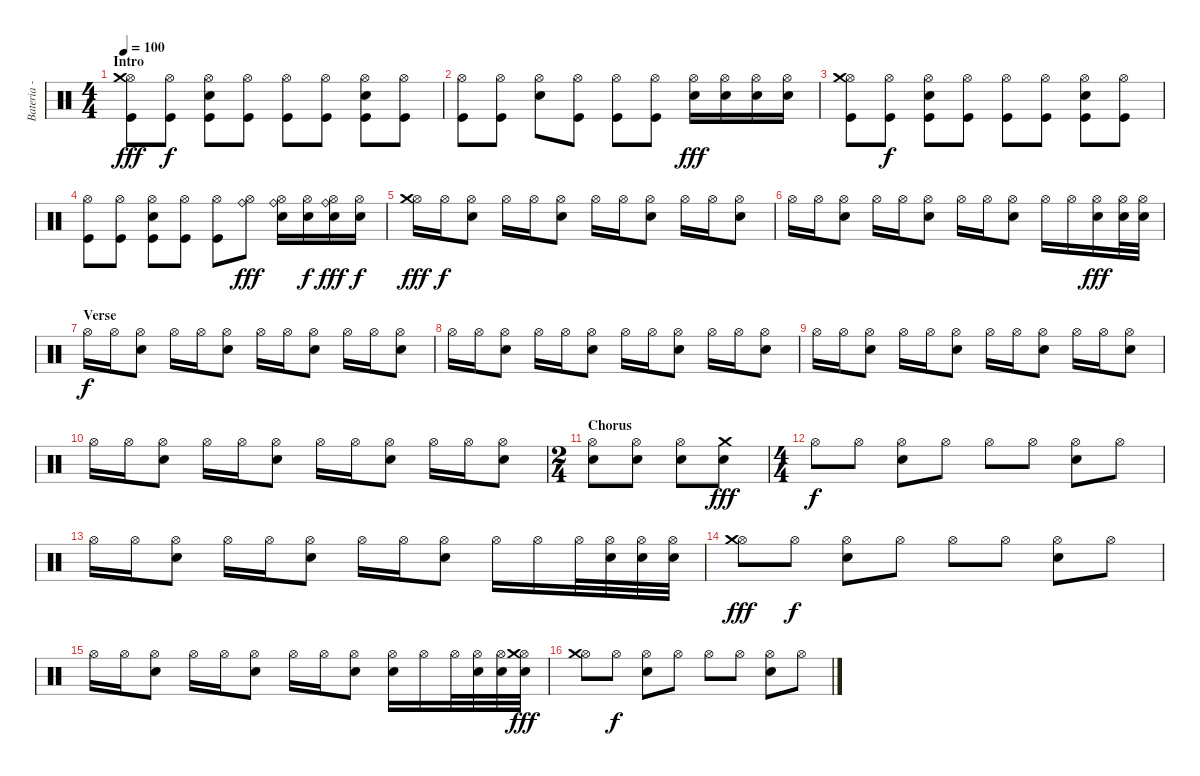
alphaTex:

\track ("Bateria - Larzon" "Bateria - ") {instrument percussion}
\staff {score}
\articulation defaults
\ts (4 4)
\section ("" "Intro")
\tempo 100
\clef neutral
\ks c
("Hi-Hat (open)" "Kick (hit)" "Crash medium (hit)").8{dy fff} ("Hi-Hat (open)" "Kick (hit)").8{dy f} ("Hi-Hat (open)" "Kick (hit)" "Snare (hit) 2").8 ("Hi-Hat (open)" "Kick (hit)").8 ("Hi-Hat (open)" "Kick (hit)").8 ("Hi-Hat (open)" "Kick (hit)").8 ("Hi-Hat (open)" "Kick (hit)" "Snare (hit) 2").8 ("Hi-Hat (open)" "Kick (hit)").8 |
("Hi-Hat (open)" "Kick (hit)").8 ("Hi-Hat (open)" "Kick (hit)").8 ("Hi-Hat (open)" "Snare (hit) 2").8 ("Hi-Hat (open)" "Kick (hit)").8 ("Hi-Hat (open)" "Kick (hit)").8 ("Hi-Hat (open)" "Kick (hit)").8 ("Hi-Hat (open)" "Snare (hit) 2").16{dy fff} ("Hi-Hat (open)" "Snare (hit) 2").16 ("Hi-Hat (open)" "Snare (hit) 2").16 ("Hi-Hat (open)" "Snare (hit) 2").16 |
("Hi-Hat (open)" "Kick (hit)" "Crash medium (hit)").8 ("Hi-Hat (open)" "Kick (hit)").8{dy f} ("Hi-Hat (open)" "Kick (hit)" "Snare (hit) 2").8 ("Hi-Hat (open)" "Kick (hit)").8 ("Hi-Hat (open)" "Kick (hit)").8 ("Hi-Hat (open)" "Kick (hit)").8 ("Hi-Hat (open)" "Kick (hit)" "Snare (hit) 2").8 ("Hi-Hat (open)" "Kick (hit)").8 |
("Hi-Hat (open)" "Kick (hit)").8 ("Hi-Hat (open)" "Kick (hit)").8 ("Hi-Hat (open)" "Kick (hit)" "Snare (hit) 2").8 ("Hi-Hat (open)" "Kick (hit)").8 ("Hi-Hat (open)" "Kick (hit)").8 ("Hi-Hat (open)" "Ride (bell)").8{dy fff} ("Hi-Hat (open)" "Ride (bell)" "Snare (hit) 2").16 ("Hi-Hat (open)" "Snare (hit) 2").16{dy f} ("Hi-Hat (open)" "Ride (bell)" "Snare (hit) 2").16{dy fff} ("Hi-Hat (open)" "Snare (hit) 2").16{dy f} |
("Hi-Hat (open)" "Crash medium (hit)").16{dy fff} "Hi-Hat (open)".16{dy f} ("Hi-Hat (open)" "Snare (hit) 2").8 "Hi-Hat (open)".16 "Hi-Hat (open)".16 ("Hi-Hat (open)" "Snare (hit) 2").8 "Hi-Hat (open)".16 "Hi-Hat (open)".16 ("Hi-Hat (open)" "Snare (hit) 2").8 "Hi-Hat (open)".16 "Hi-Hat (open)".16 ("Hi-Hat (open)" "Snare (hit) 2").8 |
"Hi-Hat (open)".16 "Hi-Hat (open)".16 ("Hi-Hat (open)" "Snare (hit) 2").8 "Hi-Hat (open)".16 "Hi-Hat (open)".16 ("Hi-Hat (open)" "Snare (hit) 2").8 "Hi-Hat (open)".16 "Hi-Hat (open)".16 ("Hi-Hat (open)" "Snare (hit) 2").8 "Hi-Hat (open)".16 "Hi-Hat (open)".16 ("Hi-Hat (open)" "Snare (hit) 2").16{dy fff} ("Hi-Hat (open)" "Snare (hit) 2").32 ("Hi-Hat (open)" "Snare (hit) 2").32 |
\section ("" "Verse")
"Hi-Hat (open)".16{dy f} "Hi-Hat (open)".16 ("Hi-Hat (open)" "Snare (hit) 2").8 "Hi-Hat (open)".16 "Hi-Hat (open)".16 ("Hi-Hat (open)" "Snare (hit) 2").8 "Hi-Hat (open)".16 "Hi-Hat (open)".16 ("Hi-Hat (open)" "Snare (hit) 2").8 "Hi-Hat (open)".16 "Hi-Hat (open)".16 ("Hi-Hat (open)" "Snare (hit) 2").8 |
"Hi-Hat (open)".16 "Hi-Hat (open)".16 ("Hi-Hat (open)" "Snare (hit) 2").8 "Hi-Hat (open)".16 "Hi-Hat (open)".16 ("Hi-Hat (open)" "Snare (hit) 2").8 "Hi-Hat (open)".16 "Hi-Hat (open)".16 ("Hi-Hat (open)" "Snare (hit) 2").8 "Hi-Hat (open)".16 "Hi-Hat (open)".16 ("Hi-Hat (open)" "Snare (hit) 2").8 |
"Hi-Hat (open)".16 "Hi-Hat (open)".16 ("Hi-Hat (open)" "Snare (hit) 2").8 "Hi-Hat (open)".16 "Hi-Hat (open)".16 ("Hi-Hat (open)" "Snare (hit) 2").8 "Hi-Hat (open)".16 "Hi-Hat (open)".16 ("Hi-Hat (open)" "Snare (hit) 2").8 "Hi-Hat (open)".16 "Hi-Hat (open)".16 ("Hi-Hat (open)" "Snare (hit) 2").8 |
"Hi-Hat (open)".16 "Hi-Hat (open)".16 ("Hi-Hat (open)" "Snare (hit) 2").8 "Hi-Hat (open)".16 "Hi-Hat (open)".16 ("Hi-Hat (open)" "Snare (hit) 2").8 "Hi-Hat (open)".16 "Hi-Hat (open)".16 ("Hi-Hat (open)" "Snare (hit) 2").8 "Hi-Hat (open)".16 "Hi-Hat (open)".16 ("Hi-Hat (open)" "Snare (hit) 2").8 |
\ts (2 4)
\section ("" "Chorus")
("Snare (hit) 2" "Hi-Hat (open)").8 ("Snare (hit) 2" "Hi-Hat (open)").8 ("Snare (hit) 2" "Hi-Hat (open)").8 ("Snare (hit) 2" "Crash medium (hit)").8{dy fff} |
\ts (4 4)
"Hi-Hat (open)".8{dy f} "Hi-Hat (open)".8 ("Hi-Hat (open)" "Snare (hit) 2").8 "Hi-Hat (open)".8 "Hi-Hat (open)".8 "Hi-Hat (open)".8 ("Hi-Hat (open)" "Snare (hit) 2").8 "Hi-Hat (open)".8 |
"Hi-Hat (open)".16 "Hi-Hat (open)".16 ("Hi-Hat (open)" "Snare (hit) 2").8 "Hi-Hat (open)".16 "Hi-Hat (open)".16 ("Hi-Hat (open)" "Snare (hit) 2").8 "Hi-Hat (open)".16 "Hi-Hat (open)".16 ("Hi-Hat (open)" "Snare (hit) 2").8 "Hi-Hat (open)".16 "Hi-Hat (open)".16 "Hi-Hat (open)".32 ("Hi-Hat (open)" "Snare (hit) 2").32 ("Hi-Hat (open)" "Snare (hit) 2").32 ("Hi-Hat (open)" "Snare (hit) 2").32 |
("Hi-Hat (open)" "Crash medium (hit)").8{dy fff} "Hi-Hat (open)".8{dy f} ("Hi-Hat (open)" "Snare (hit) 2").8 "Hi-Hat (open)".8 "Hi-Hat (open)".8 "Hi-Hat (open)".8 ("Hi-Hat (open)" "Snare (hit) 2").8 "Hi-Hat (open)".8 |
"Hi-Hat (open)".16 "Hi-Hat (open)".16 ("Hi-Hat (open)" "Snare (hit) 2").8 "Hi-Hat (open)".16 "Hi-Hat (open)".16 ("Hi-Hat (open)" "Snare (hit) 2").8 "Hi-Hat (open)".16 "Hi-Hat (open)".16 ("Hi-Hat (open)" "Snare (hit) 2").8 ("Hi-Hat (open)" "Snare (hit) 2").16 "Hi-Hat (open)".16 "Hi-Hat (open)".32 ("Hi-Hat (open)" "Snare (hit) 2").32 ("Hi-Hat (open)" "Snare (hit) 2").32 ("Hi-Hat (open)" "Snare (hit) 2" "Crash medium (hit)").32{dy fff} |
("Hi-Hat (open)" "Crash medium (hit)").8 "Hi-Hat (open)".8{dy f} ("Hi-Hat (open)" "Snare (hit) 2").8 "Hi-Hat (open)".8 "Hi-Hat (open)".8 "Hi-Hat (open)".8 ("Hi-Hat (open)" "Snare (hit) 2").8 "Hi-Hat (open)".8
